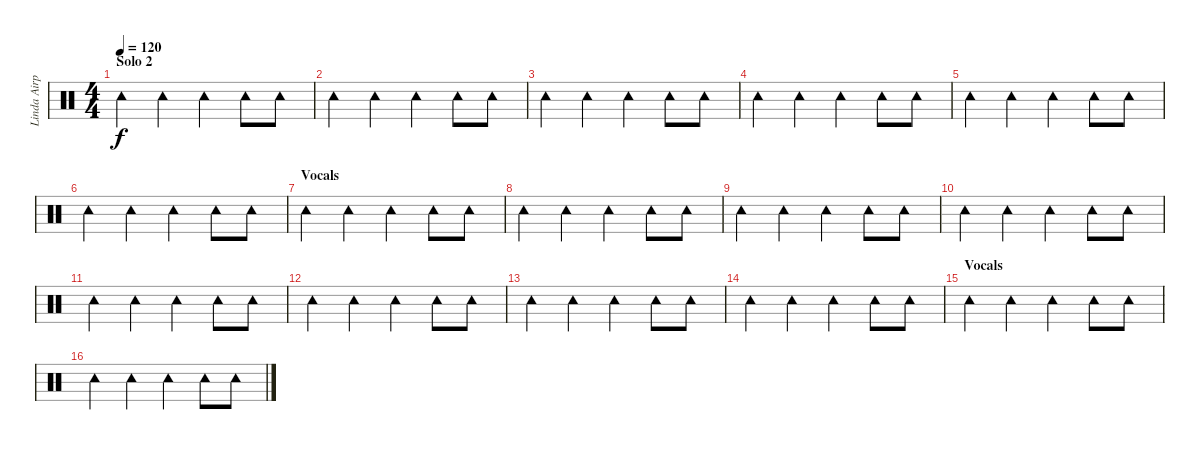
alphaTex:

\track ("Linda Airplane" "Linda Airp") {instrument percussion}
\staff {score}
\articulation defaults
\ts (4 4)
\section ("" "Solo 2")
\tempo 120
\clef neutral
\ks c "Tambourine (hit)".4{dy f} "Tambourine (hit)".4 "Tambourine (hit)".4 "Tambourine (hit)".8 "Tambourine (hit)".8
|
"Tambourine (hit)".4 "Tambourine (hit)".4 "Tambourine (hit)".4 "Tambourine (hit)".8 "Tambourine (hit)".8 |
"Tambourine (hit)".4 "Tambourine (hit)".4 "Tambourine (hit)".4 "Tambourine (hit)".8 "Tambourine (hit)".8 |
"Tambourine (hit)".4 "Tambourine (hit)".4 "Tambourine (hit)".4 "Tambourine (hit)".8 "Tambourine (hit)".8 |
"Tambourine (hit)".4 "Tambourine (hit)".4 "Tambourine (hit)".4 "Tambourine (hit)".8 "Tambourine (hit)".8 |
"Tambourine (hit)".4 "Tambourine (hit)".4 "Tambourine (hit)".4 "Tambourine (hit)".8 "Tambourine (hit)".8 |
\section ("" "Vocals")
"Tambourine (hit)".4 "Tambourine (hit)".4 "Tambourine (hit)".4 "Tambourine (hit)".8 "Tambourine (hit)".8 |
"Tambourine (hit)".4 "Tambourine (hit)".4 "Tambourine (hit)".4 "Tambourine (hit)".8 "Tambourine (hit)".8 |
"Tambourine (hit)".4 "Tambourine (hit)".4 "Tambourine (hit)".4 "Tambourine (hit)".8 "Tambourine (hit)".8 |
"Tambourine (hit)".4 "Tambourine (hit)".4 "Tambourine (hit)".4 "Tambourine (hit)".8 "Tambourine (hit)".8 |
"Tambourine (hit)".4 "Tambourine (hit)".4 "Tambourine (hit)".4 "Tambourine (hit)".8 "Tambourine (hit)".8 |
"Tambourine (hit)".4 "Tambourine (hit)".4 "Tambourine (hit)".4 "Tambourine (hit)".8 "Tambourine (hit)".8 |
"Tambourine (hit)".4 "Tambourine (hit)".4 "Tambourine (hit)".4 "Tambourine (hit)".8 "Tambourine (hit)".8 |
"Tambourine (hit)".4 "Tambourine (hit)".4 "Tambourine (hit)".4 "Tambourine (hit)".8 "Tambourine (hit)".8 |
\section ("" "Vocals")
"Tambourine (hit)".4 "Tambourine (hit)".4 "Tambourine (hit)".4 "Tambourine (hit)".8 "Tambourine (hit)".8 |
"Tambourine (hit)".4 "Tambourine (hit)".4 "Tambourine (hit)".4 "Tambourine (hit)".8 "Tambourine (hit)".8
